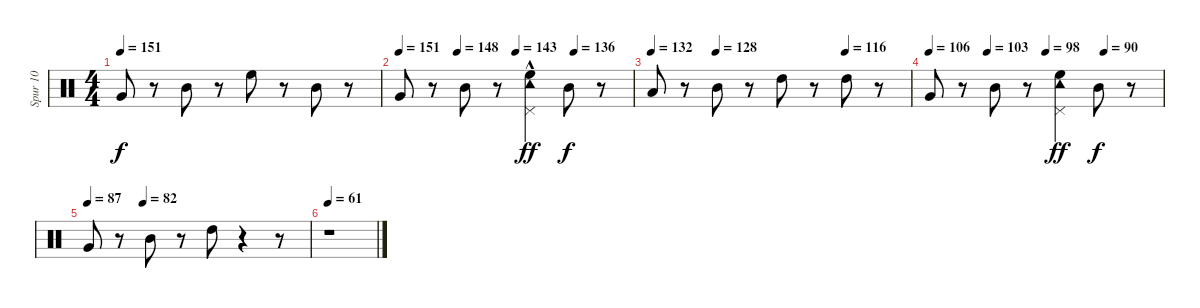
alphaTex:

\track ("Spur 10" "Spur 10") {instrument percussion}
\staff {score}
\articulation defaults
\ts (4 4)
\tempo 151
\clef neutral
\ks c "Very Low Tom (hit)".8{dy f}
r.8 "Mid Tom (hit)".8 r.8 "High Floor Tom (hit)".8 r.8 "Mid Tom (hit)".8 r.8 |
\tempo 151
\tempo (148 0.25)
\tempo (143 0.5)
\tempo (136 0.75)
"Very Low Tom (hit)".8 r.8 "Mid Tom (hit)".8 r.8 ("Pedal Hi-Hat (hit)" "Tambourine (hit)"{hac} "High Floor Tom (hit)").4{dy ff} "Mid Tom (hit)".8{dy f} r.8 |
\tempo 132
\tempo (128 0.25)
\tempo (116 0.75)
"Low Tom (hit)".8 r.8 "Mid Tom (hit)".8 r.8 "High Tom (hit)".8 r.8 "High Tom (hit)".8 r.8 |
\tempo 106
\tempo (103 0.25)
\tempo (98 0.5)
\tempo (90 0.75)
"Very Low Tom (hit)".8 r.8 "Mid Tom (hit)".8 r.8 ("Pedal Hi-Hat (hit)" "Tambourine (hit)" "High Floor Tom (hit)").4{dy ff} "Mid Tom (hit)".8{dy f} r.8 |
\tempo 87
\tempo (82 0.25)
"Very Low Tom (hit)".8 r.8 "Mid Tom (hit)".8 r.8 "High Tom (hit)".8 r.4 r.8 |
\tempo 61
r.1
